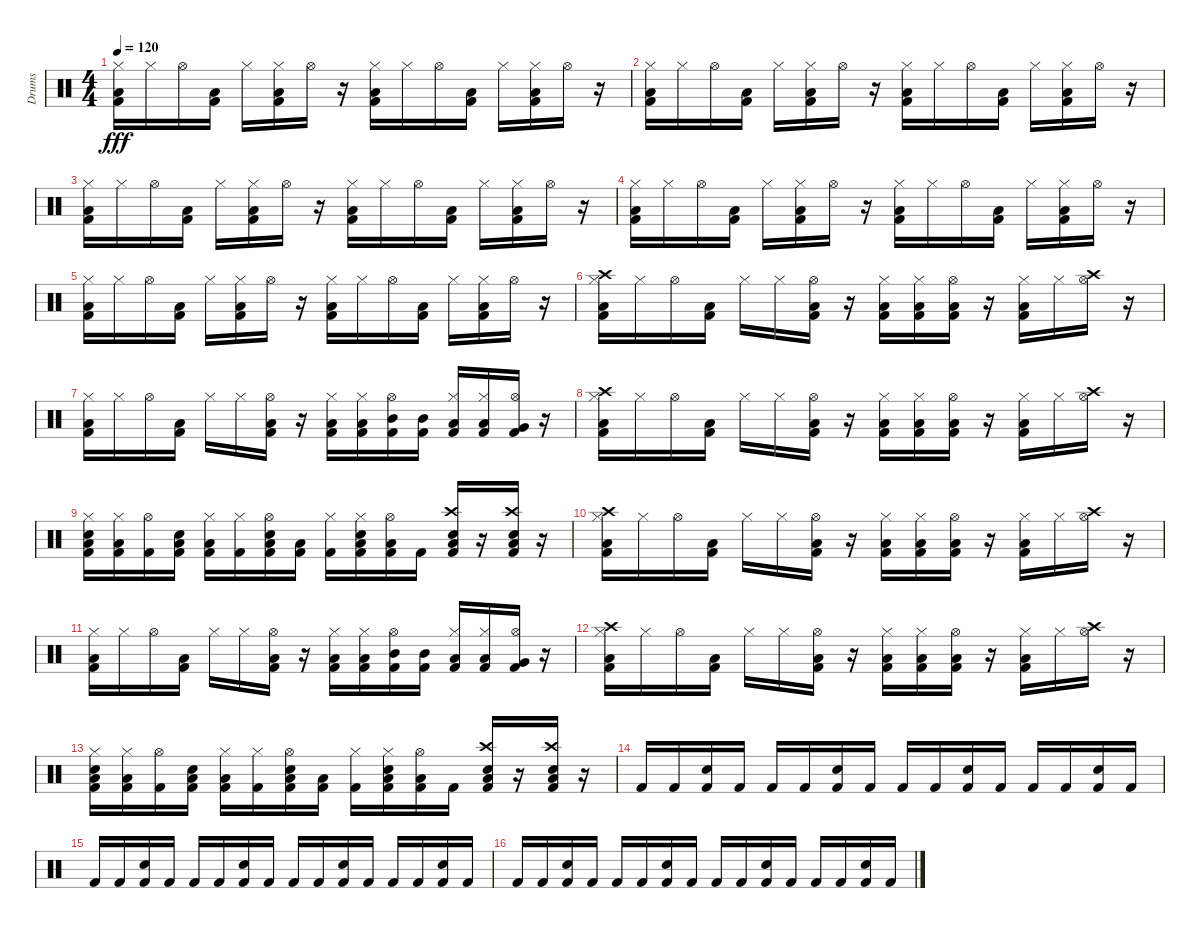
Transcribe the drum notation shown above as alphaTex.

\track ("Drums" "Drums") {instrument percussion}
\staff {score}
\articulation defaults
\ts (4 4)
\tempo 120
\clef neutral
\ks c
("Low Floor Tom (hit)" "Kick (hit) 2" "Hi-Hat (closed)").16{dy fff} "Hi-Hat (closed)".16 "Hi-Hat (open)".16 ("Low Floor Tom (hit)" "Kick (hit) 2").16 "Hi-Hat (closed)".16 ("Low Floor Tom (hit)" "Kick (hit) 2" "Hi-Hat (closed)").16 "Hi-Hat (open)".16 r.16 ("Low Floor Tom (hit)" "Kick (hit) 2" "Hi-Hat (closed)").16 "Hi-Hat (closed)".16 "Hi-Hat (open)".16 ("Low Floor Tom (hit)" "Kick (hit) 2").16 "Hi-Hat (closed)".16 ("Low Floor Tom (hit)" "Kick (hit) 2" "Hi-Hat (closed)").16 "Hi-Hat (open)".16 r.16 |
("Low Floor Tom (hit)" "Kick (hit) 2" "Hi-Hat (closed)").16 "Hi-Hat (closed)".16 "Hi-Hat (open)".16 ("Low Floor Tom (hit)" "Kick (hit) 2").16 "Hi-Hat (closed)".16 ("Low Floor Tom (hit)" "Kick (hit) 2" "Hi-Hat (closed)").16 "Hi-Hat (open)".16 r.16 ("Low Floor Tom (hit)" "Kick (hit) 2" "Hi-Hat (closed)").16 "Hi-Hat (closed)".16 "Hi-Hat (open)".16 ("Low Floor Tom (hit)" "Kick (hit) 2").16 "Hi-Hat (closed)".16 ("Low Floor Tom (hit)" "Kick (hit) 2" "Hi-Hat (closed)").16 "Hi-Hat (open)".16 r.16 |
("Low Floor Tom (hit)" "Kick (hit) 2" "Hi-Hat (closed)").16 "Hi-Hat (closed)".16 "Hi-Hat (open)".16 ("Low Floor Tom (hit)" "Kick (hit) 2").16 "Hi-Hat (closed)".16 ("Low Floor Tom (hit)" "Kick (hit) 2" "Hi-Hat (closed)").16 "Hi-Hat (open)".16 r.16 ("Low Floor Tom (hit)" "Kick (hit) 2" "Hi-Hat (closed)").16 "Hi-Hat (closed)".16 "Hi-Hat (open)".16 ("Low Floor Tom (hit)" "Kick (hit) 2").16 "Hi-Hat (closed)".16 ("Low Floor Tom (hit)" "Kick (hit) 2" "Hi-Hat (closed)").16 "Hi-Hat (open)".16 r.16 |
("Low Floor Tom (hit)" "Kick (hit) 2" "Hi-Hat (closed)").16 "Hi-Hat (closed)".16 "Hi-Hat (open)".16 ("Low Floor Tom (hit)" "Kick (hit) 2").16 "Hi-Hat (closed)".16 ("Low Floor Tom (hit)" "Kick (hit) 2" "Hi-Hat (closed)").16 "Hi-Hat (open)".16 r.16 ("Low Floor Tom (hit)" "Kick (hit) 2" "Hi-Hat (closed)").16 "Hi-Hat (closed)".16 "Hi-Hat (open)".16 ("Low Floor Tom (hit)" "Kick (hit) 2").16 "Hi-Hat (closed)".16 ("Low Floor Tom (hit)" "Kick (hit) 2" "Hi-Hat (closed)").16 "Hi-Hat (open)".16 r.16 |
("Low Floor Tom (hit)" "Kick (hit) 2" "Hi-Hat (closed)").16 "Hi-Hat (closed)".16 "Hi-Hat (open)".16 ("Low Floor Tom (hit)" "Kick (hit) 2").16 "Hi-Hat (closed)".16 ("Low Floor Tom (hit)" "Kick (hit) 2" "Hi-Hat (closed)").16 "Hi-Hat (open)".16 r.16 ("Low Floor Tom (hit)" "Kick (hit) 2" "Hi-Hat (closed)").16 "Hi-Hat (closed)".16 "Hi-Hat (open)".16 ("Low Floor Tom (hit)" "Kick (hit) 2").16 "Hi-Hat (closed)".16 ("Low Floor Tom (hit)" "Kick (hit) 2" "Hi-Hat (closed)").16 "Hi-Hat (open)".16 r.16 |
("Low Floor Tom (hit)" "Kick (hit) 2" "Hi-Hat (closed)" "Crash high (hit)").16 "Hi-Hat (closed)".16 "Hi-Hat (open)".16 ("Low Floor Tom (hit)" "Kick (hit) 2").16 "Hi-Hat (closed)".16 "Hi-Hat (closed)".16 ("Low Floor Tom (hit)" "Kick (hit) 2" "Hi-Hat (open)").16 r.16 ("Low Floor Tom (hit)" "Kick (hit) 2" "Hi-Hat (closed)").16 ("Low Floor Tom (hit)" "Kick (hit) 2" "Hi-Hat (closed)").16 ("Low Floor Tom (hit)" "Kick (hit) 2" "Hi-Hat (open)").16 r.16 ("Low Floor Tom (hit)" "Kick (hit) 2" "Hi-Hat (closed)").16 "Hi-Hat (closed)".16 ("Hi-Hat (open)" "Crash high (hit)").16 r.16 |
("Low Floor Tom (hit)" "Kick (hit) 2" "Hi-Hat (closed)").16 "Hi-Hat (closed)".16 "Hi-Hat (open)".16 ("Low Floor Tom (hit)" "Kick (hit) 2").16 "Hi-Hat (closed)".16 "Hi-Hat (closed)".16 ("Low Floor Tom (hit)" "Kick (hit) 2" "Hi-Hat (open)").16 r.16 ("Low Floor Tom (hit)" "Kick (hit) 2" "Hi-Hat (closed)").16 ("Low Floor Tom (hit)" "Kick (hit) 2" "Hi-Hat (closed)").16 ("Mid Tom (hit)" "Kick (hit) 2" "Hi-Hat (open)").16 ("Mid Tom (hit)" "Kick (hit) 2").16 ("Low Tom (hit)" "Kick (hit) 2" "Hi-Hat (closed)").16 ("Low Tom (hit)" "Kick (hit) 2" "Hi-Hat (closed)").16 ("Very Low Tom (hit)" "Kick (hit) 2" "Hi-Hat (open)").16 r.16 |
("Low Floor Tom (hit)" "Kick (hit) 2" "Hi-Hat (closed)" "Crash high (hit)").16 "Hi-Hat (closed)".16 "Hi-Hat (open)".16 ("Low Floor Tom (hit)" "Kick (hit) 2").16 "Hi-Hat (closed)".16 "Hi-Hat (closed)".16 ("Low Floor Tom (hit)" "Kick (hit) 2" "Hi-Hat (open)").16 r.16 ("Low Floor Tom (hit)" "Kick (hit) 2" "Hi-Hat (closed)").16 ("Low Floor Tom (hit)" "Kick (hit) 2" "Hi-Hat (closed)").16 ("Low Floor Tom (hit)" "Kick (hit) 2" "Hi-Hat (open)").16 r.16 ("Low Floor Tom (hit)" "Kick (hit) 2" "Hi-Hat (closed)").16 "Hi-Hat (closed)".16 ("Hi-Hat (open)" "Crash high (hit)").16 r.16 |
("Snare (hit) 2" "Low Tom (hit)" "Kick (hit) 2" "Hi-Hat (closed)").16 ("Low Floor Tom (hit)" "Kick (hit) 2" "Hi-Hat (closed)").16 ("Kick (hit) 2" "Hi-Hat (open)").16 ("Snare (hit) 2" "Low Tom (hit)" "Kick (hit) 2").16 ("Low Floor Tom (hit)" "Kick (hit) 2" "Hi-Hat (closed)").16 ("Kick (hit) 2" "Hi-Hat (closed)").16 ("Snare (hit) 2" "Low Tom (hit)" "Kick (hit) 2" "Hi-Hat (open)").16 ("Low Floor Tom (hit)" "Kick (hit) 2").16 ("Kick (hit) 2" "Hi-Hat (closed)").16 ("Snare (hit) 2" "Low Tom (hit)" "Kick (hit) 2" "Hi-Hat (closed)").16 ("Low Floor Tom (hit)" "Kick (hit) 2" "Hi-Hat (open)").16 "Kick (hit) 2".16 ("Snare (hit) 2" "Low Tom (hit)" "Kick (hit) 2" "Crash high (hit)").16 r.16 ("Snare (hit) 2" "Low Tom (hit)" "Kick (hit) 2" "Crash high (hit)").16 r.16 |
("Low Floor Tom (hit)" "Kick (hit) 2" "Hi-Hat (closed)" "Crash high (hit)").16 "Hi-Hat (closed)".16 "Hi-Hat (open)".16 ("Low Floor Tom (hit)" "Kick (hit) 2").16 "Hi-Hat (closed)".16 "Hi-Hat (closed)".16 ("Low Floor Tom (hit)" "Kick (hit) 2" "Hi-Hat (open)").16 r.16 ("Low Floor Tom (hit)" "Kick (hit) 2" "Hi-Hat (closed)").16 ("Low Floor Tom (hit)" "Kick (hit) 2" "Hi-Hat (closed)").16 ("Low Floor Tom (hit)" "Kick (hit) 2" "Hi-Hat (open)").16 r.16 ("Low Floor Tom (hit)" "Kick (hit) 2" "Hi-Hat (closed)").16 "Hi-Hat (closed)".16 ("Hi-Hat (open)" "Crash high (hit)").16 r.16 |
("Low Floor Tom (hit)" "Kick (hit) 2" "Hi-Hat (closed)").16 "Hi-Hat (closed)".16 "Hi-Hat (open)".16 ("Low Floor Tom (hit)" "Kick (hit) 2").16 "Hi-Hat (closed)".16 "Hi-Hat (closed)".16 ("Low Floor Tom (hit)" "Kick (hit) 2" "Hi-Hat (open)").16 r.16 ("Low Floor Tom (hit)" "Kick (hit) 2" "Hi-Hat (closed)").16 ("Low Floor Tom (hit)" "Kick (hit) 2" "Hi-Hat (closed)").16 ("Mid Tom (hit)" "Kick (hit) 2" "Hi-Hat (open)").16 ("Mid Tom (hit)" "Kick (hit) 2").16 ("Low Tom (hit)" "Kick (hit) 2" "Hi-Hat (closed)").16 ("Low Tom (hit)" "Kick (hit) 2" "Hi-Hat (closed)").16 ("Very Low Tom (hit)" "Kick (hit) 2" "Hi-Hat (open)").16 r.16 |
("Low Floor Tom (hit)" "Kick (hit) 2" "Hi-Hat (closed)" "Crash high (hit)").16 "Hi-Hat (closed)".16 "Hi-Hat (open)".16 ("Low Floor Tom (hit)" "Kick (hit) 2").16 "Hi-Hat (closed)".16 "Hi-Hat (closed)".16 ("Low Floor Tom (hit)" "Kick (hit) 2" "Hi-Hat (open)").16 r.16 ("Low Floor Tom (hit)" "Kick (hit) 2" "Hi-Hat (closed)").16 ("Low Floor Tom (hit)" "Kick (hit) 2" "Hi-Hat (closed)").16 ("Low Floor Tom (hit)" "Kick (hit) 2" "Hi-Hat (open)").16 r.16 ("Low Floor Tom (hit)" "Kick (hit) 2" "Hi-Hat (closed)").16 "Hi-Hat (closed)".16 ("Hi-Hat (open)" "Crash high (hit)").16 r.16 |
("Snare (hit) 2" "Low Tom (hit)" "Kick (hit) 2" "Hi-Hat (closed)").16 ("Low Floor Tom (hit)" "Kick (hit) 2" "Hi-Hat (closed)").16 ("Kick (hit) 2" "Hi-Hat (open)").16 ("Snare (hit) 2" "Low Tom (hit)" "Kick (hit) 2").16 ("Low Floor Tom (hit)" "Kick (hit) 2" "Hi-Hat (closed)").16 ("Kick (hit) 2" "Hi-Hat (closed)").16 ("Snare (hit) 2" "Low Tom (hit)" "Kick (hit) 2" "Hi-Hat (open)").16 ("Low Floor Tom (hit)" "Kick (hit) 2").16 ("Kick (hit) 2" "Hi-Hat (closed)").16 ("Snare (hit) 2" "Low Tom (hit)" "Kick (hit) 2" "Hi-Hat (closed)").16 ("Low Floor Tom (hit)" "Kick (hit) 2" "Hi-Hat (open)").16 "Kick (hit) 2".16 ("Snare (hit) 2" "Low Tom (hit)" "Kick (hit) 2" "Crash high (hit)").16 r.16 ("Snare (hit) 2" "Low Tom (hit)" "Kick (hit) 2" "Crash high (hit)").16 r.16 |
"Kick (hit) 2".16 "Kick (hit) 2".16 ("Snare (hit) 2" "Kick (hit) 2").16 "Kick (hit) 2".16 "Kick (hit) 2".16 "Kick (hit) 2".16 ("Snare (hit) 2" "Kick (hit) 2").16 "Kick (hit) 2".16 "Kick (hit) 2".16 "Kick (hit) 2".16 ("Snare (hit) 2" "Kick (hit) 2").16 "Kick (hit) 2".16 "Kick (hit) 2".16 "Kick (hit) 2".16 ("Snare (hit) 2" "Kick (hit) 2").16 "Kick (hit) 2".16 |
"Kick (hit) 2".16 "Kick (hit) 2".16 ("Snare (hit) 2" "Kick (hit) 2").16 "Kick (hit) 2".16 "Kick (hit) 2".16 "Kick (hit) 2".16 ("Snare (hit) 2" "Kick (hit) 2").16 "Kick (hit) 2".16 "Kick (hit) 2".16 "Kick (hit) 2".16 ("Snare (hit) 2" "Kick (hit) 2").16 "Kick (hit) 2".16 "Kick (hit) 2".16 "Kick (hit) 2".16 ("Snare (hit) 2" "Kick (hit) 2").16 "Kick (hit) 2".16 |
"Kick (hit) 2".16 "Kick (hit) 2".16 ("Snare (hit) 2" "Kick (hit) 2").16 "Kick (hit) 2".16 "Kick (hit) 2".16 "Kick (hit) 2".16 ("Snare (hit) 2" "Kick (hit) 2").16 "Kick (hit) 2".16 "Kick (hit) 2".16 "Kick (hit) 2".16 ("Snare (hit) 2" "Kick (hit) 2").16 "Kick (hit) 2".16 "Kick (hit) 2".16 "Kick (hit) 2".16 ("Snare (hit) 2" "Kick (hit) 2").16 "Kick (hit) 2".16
